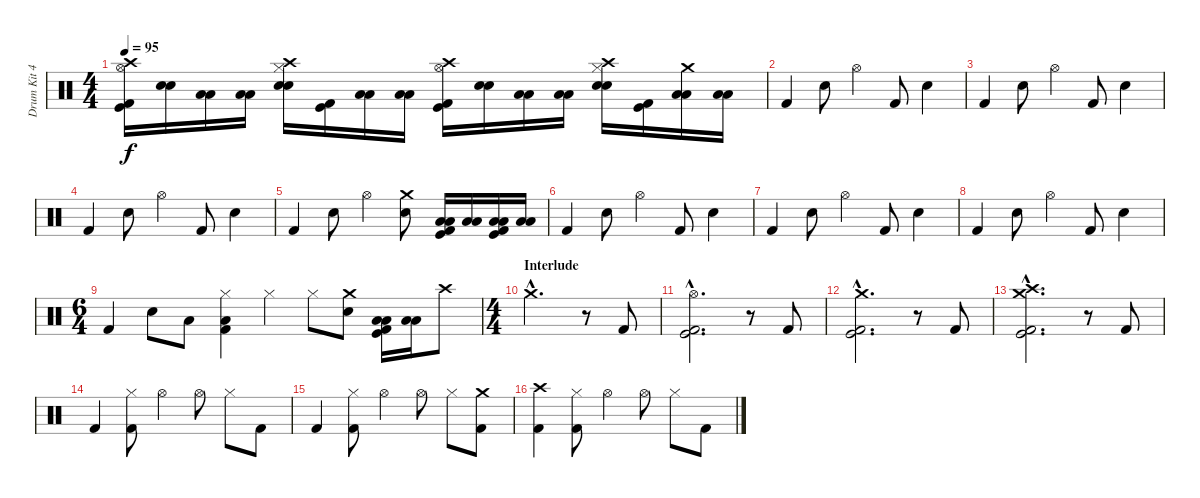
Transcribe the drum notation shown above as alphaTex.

\track ("Drum Kit 42" "Drum Kit 4") {instrument percussion}
\staff {score}
\articulation defaults
\ts (4 4)
\tempo 95
\clef neutral
\ks c
("Crash high (hit)" "Hi-Hat (open)" "Kick (hit)" "Kick (hit) 2").16{dy f} ("Snare (hit) 2" "Snare (hit) 2").16 ("Low Tom (hit)" "Low Tom (hit)").16 ("Low Tom (hit)" "Low Tom (hit)").16 ("Crash high (hit)" "Hi-Hat (closed)" "Snare (hit) 2" "Snare (hit) 2").16 ("Kick (hit)" "Kick (hit) 2").16 ("Low Floor Tom (hit)" "Low Floor Tom (hit)").16 ("Low Floor Tom (hit)" "Low Floor Tom (hit)").16 ("Crash high (hit)" "Hi-Hat (open)" "Kick (hit)" "Kick (hit) 2").16 ("Snare (hit) 2" "Snare (hit) 2").16 ("Low Tom (hit)" "Low Tom (hit)").16 ("Low Tom (hit)" "Low Tom (hit)").16 ("Crash high (hit)" "Hi-Hat (closed)" "Snare (hit) 2" "Snare (hit) 2").16 ("Kick (hit)" "Kick (hit) 2").16 ("Crash medium (hit)" "Low Floor Tom (hit)" "Low Floor Tom (hit)").16 ("Low Floor Tom (hit)" "Low Floor Tom (hit)").16 |
"Kick (hit) 2".4 "Snare (hit) 2".8 "Hi-Hat (open)".4 "Kick (hit) 2".8 "Snare (hit) 2".4 |
"Kick (hit) 2".4 "Snare (hit) 2".8 "Hi-Hat (open)".4 "Kick (hit) 2".8 "Snare (hit) 2".4 |
"Kick (hit) 2".4 "Snare (hit) 2".8 "Hi-Hat (open)".4 "Kick (hit) 2".8 "Snare (hit) 2".4 |
"Kick (hit) 2".4 "Snare (hit) 2".8 "Hi-Hat (open)".4 ("Crash medium (hit)" "Snare (hit) 2").8 ("Kick (hit)" "Low Tom (hit)" "Low Tom (hit)" "Kick (hit) 2").16 ("Low Tom (hit)" "Low Tom (hit)").16 ("Kick (hit)" "Low Floor Tom (hit)" "Low Floor Tom (hit)" "Kick (hit) 2").16 ("Low Floor Tom (hit)" "Low Floor Tom (hit)").16 |
"Kick (hit) 2".4 "Snare (hit) 2".8 "Hi-Hat (open)".4 "Kick (hit) 2".8 "Snare (hit) 2".4 |
"Kick (hit) 2".4 "Snare (hit) 2".8 "Hi-Hat (open)".4 "Kick (hit) 2".8 "Snare (hit) 2".4 |
"Kick (hit) 2".4 "Snare (hit) 2".8 "Hi-Hat (open)".4 "Kick (hit) 2".8 "Snare (hit) 2".4 |
\ts (6 4)
"Kick (hit) 2".4 "Snare (hit) 2".8 "Low Tom (hit)".8 ("Hi-Hat (closed)" "Low Tom (hit)" "Kick (hit) 2").4 "Hi-Hat (closed)".4 "Hi-Hat (closed)".8 ("Crash medium (hit)" "Snare (hit) 2").8 ("Kick (hit)" "Low Tom (hit)" "Low Tom (hit)" "Kick (hit) 2").16 ("Low Tom (hit)" "Low Tom (hit)").16 "Crash high (hit)".8 |
\ts (4 4)
\section ("" "Interlude")
"Crash medium (hit)"{hac}.2{d volume 11} r.8 "Kick (hit) 2".8 |
("Hi-Hat (open)"{hac} "Kick (hit)"{hac} "Kick (hit) 2"{hac}).2{d} r.8 "Kick (hit) 2".8 |
("Crash medium (hit)"{hac} "Kick (hit)"{hac} "Kick (hit) 2"{hac}).2{d} r.8 "Kick (hit) 2".8 |
("Crash high (hit)"{hac} "Crash medium (hit)"{hac} "Kick (hit)"{hac} "Kick (hit) 2"{hac}).2{d} r.8 "Kick (hit) 2".8 |
"Kick (hit) 2".4 ("Hi-Hat (closed)" "Kick (hit) 2").8 "Hi-Hat (open)".4 "Hi-Hat (open)".8 "Hi-Hat (closed)".8 "Kick (hit) 2".8 |
"Kick (hit) 2".4 ("Hi-Hat (closed)" "Kick (hit) 2").8 "Hi-Hat (open)".4 "Hi-Hat (open)".8 "Hi-Hat (closed)".8 ("Crash medium (hit)" "Kick (hit) 2").8 |
("Crash high (hit)" "Kick (hit) 2").4 ("Hi-Hat (closed)" "Kick (hit) 2").8 "Hi-Hat (open)".4 "Hi-Hat (open)".8 "Hi-Hat (closed)".8 "Kick (hit) 2".8
